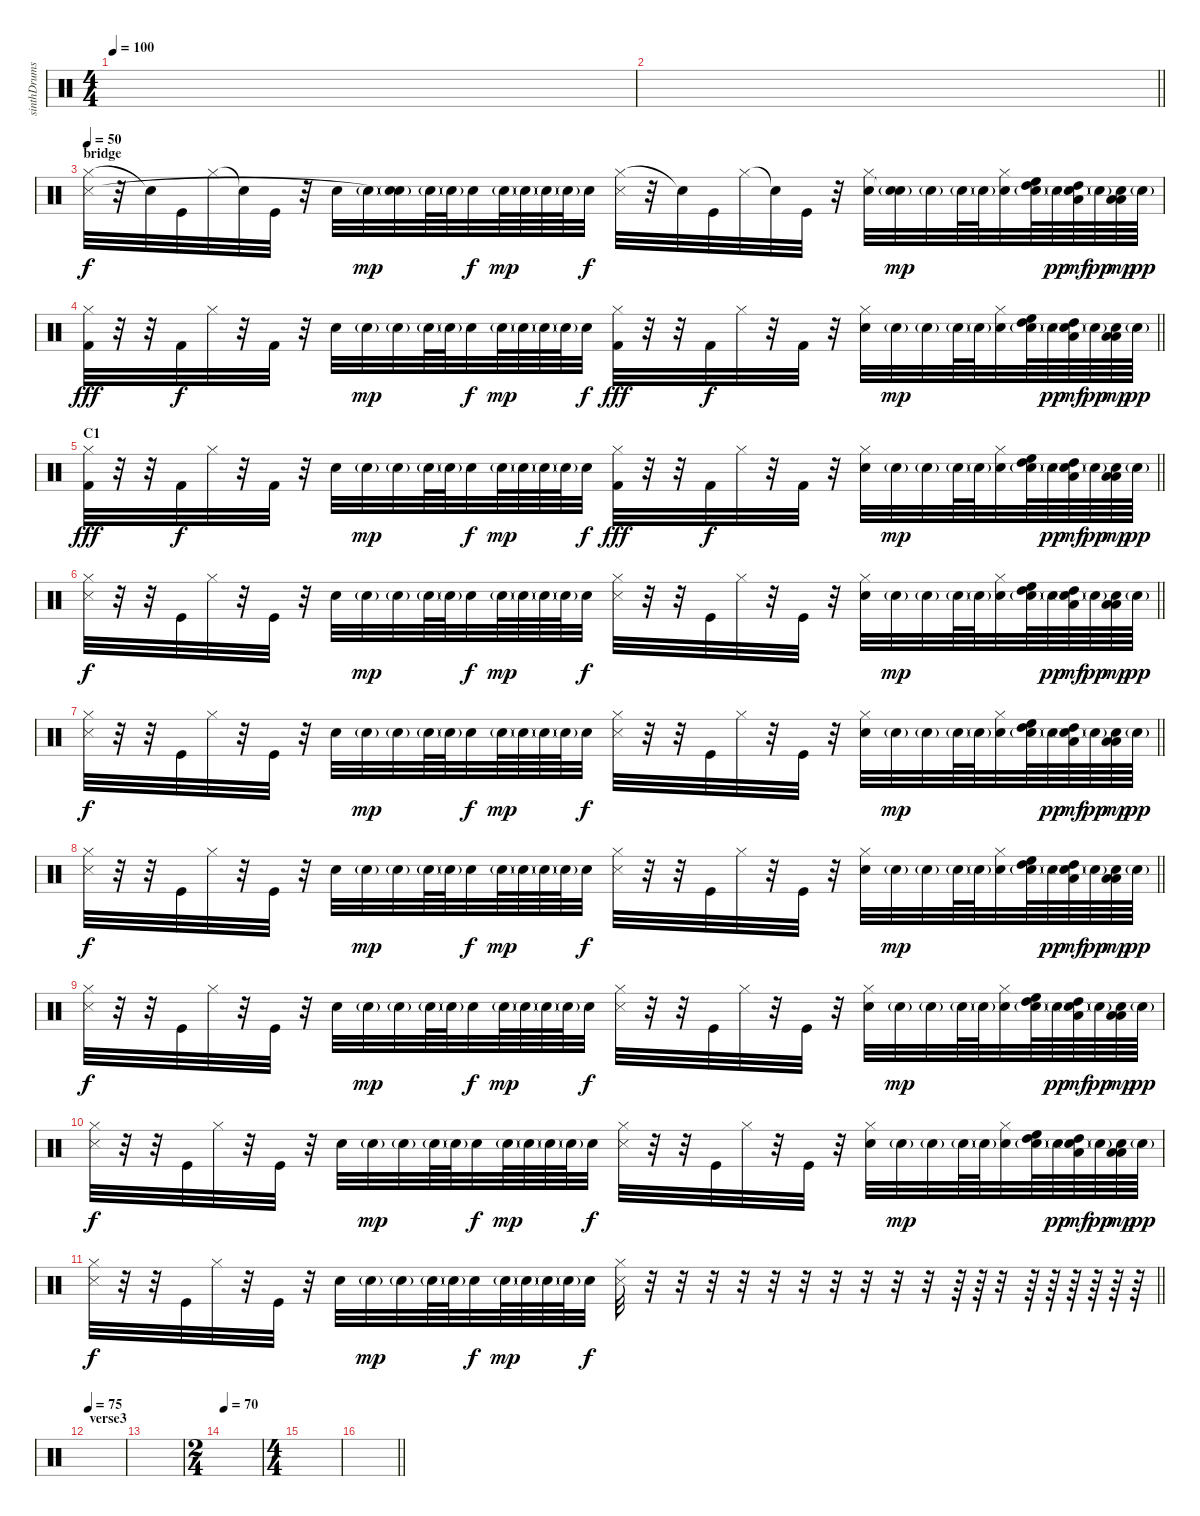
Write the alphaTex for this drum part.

\track ("sinthDrums" "sinthDrums") {instrument percussion}
\staff {score}
\articulation defaults
\ts (4 4)
\tempo 100
\clef neutral
\ks c
|
\barLineRight lightlight
|
\section ("" "bridge")
\tempo 50
("Hi-Hat (closed)" "Snare (side stick) 3").32 r.32 "Snare (hit)"{t}.32 "Kick (hit)".32 "Hi-Hat (closed)".32 "Snare (hit)"{t}.32 "Kick (hit)".32 r.32 "Snare (hit) 2".32 "Snare (hit) 2"{g}.32{dy mp} ("Snare (hit) 2"{g} "Snare (hit)"{t}).32 "Snare (hit) 2"{g}.64 "Snare (hit) 2"{g}.64 "Snare (hit) 2".32{dy f} "Snare (hit) 2"{g}.64{dy mp} "Snare (hit) 2"{g}.64 "Snare (hit) 2"{g}.64 "Snare (hit) 2"{g}.64 "Snare (hit) 2".32{dy f} ("Hi-Hat (closed)" "Snare (side stick) 3").32 r.32 "Snare (hit)"{t}.32 "Kick (hit)".32 "Hi-Hat (closed)".32 "Snare (hit)"{t}.32 "Kick (hit)".32 r.32 ("Hi-Hat (closed)" "Snare (hit) 2").32 ("Snare (hit) 2"{g} "Snare (hit)"{t}).32{dy mp} "Snare (hit) 2"{g}.32 "Snare (hit) 2"{g}.64 "Snare (hit) 2"{g}.64 ("Hi-Hat (closed)" "Snare (hit) 2").32 ("Snare (hit) 2"{g} "High Tom (hit)" "High Floor Tom (hit)").64 "Snare (hit) 2"{g}.64{dy pp} ("Snare (hit) 2"{g} "Low Tom (hit)" "High Tom (hit)").64{dy mf} "Snare (hit) 2"{g}.64{dy pp} ("Snare (hit) 2" "Low Floor Tom (hit)" "Low Tom (hit)").64{dy mp} "Snare (hit) 2"{g}.64{dy pp} |
\barLineRight lightlight
("Hi-Hat (closed)" "Kick (hit) 2").32{dy fff} r.32 r.32 "Kick (hit) 2".32{dy f} "Hi-Hat (closed)".32 r.32 "Kick (hit) 2".32 r.32 "Electric Snare (hit)".32 "Electric Snare (hit)"{g}.32{dy mp} "Electric Snare (hit)"{g}.32 "Electric Snare (hit)"{g}.64 "Electric Snare (hit)"{g}.64 "Electric Snare (hit)".32{dy f} "Electric Snare (hit)"{g}.64{dy mp} "Electric Snare (hit)"{g}.64 "Electric Snare (hit)"{g}.64 "Electric Snare (hit)"{g}.64 "Electric Snare (hit)".32{dy f} ("Hi-Hat (closed)" "Kick (hit) 2").32{dy fff} r.32 r.32 "Kick (hit) 2".32{dy f} "Hi-Hat (closed)".32 r.32 "Kick (hit) 2".32 r.32 ("Hi-Hat (closed)" "Electric Snare (hit)").32 "Electric Snare (hit)"{g}.32{dy mp} "Electric Snare (hit)"{g}.32 "Electric Snare (hit)"{g}.64 "Electric Snare (hit)"{g}.64 ("Hi-Hat (closed)" "Electric Snare (hit)").32 ("Electric Snare (hit)"{g} "High Tom (hit)" "High Floor Tom (hit)").64 "Electric Snare (hit)"{g}.64{dy pp} ("Electric Snare (hit)"{g} "Low Tom (hit)" "High Tom (hit)").64{dy mf} "Electric Snare (hit)"{g}.64{dy pp} ("Electric Snare (hit)" "Low Floor Tom (hit)" "Low Tom (hit)").64{dy mp} "Electric Snare (hit)"{g}.64{dy pp} |
\section ("" "C1")
\barLineRight lightlight
("Hi-Hat (closed)" "Kick (hit) 2").32{dy fff} r.32 r.32 "Kick (hit) 2".32{dy f} "Hi-Hat (closed)".32 r.32 "Kick (hit) 2".32 r.32 "Electric Snare (hit)".32 "Electric Snare (hit)"{g}.32{dy mp} "Electric Snare (hit)"{g}.32 "Electric Snare (hit)"{g}.64 "Electric Snare (hit)"{g}.64 "Electric Snare (hit)".32{dy f} "Electric Snare (hit)"{g}.64{dy mp} "Electric Snare (hit)"{g}.64 "Electric Snare (hit)"{g}.64 "Electric Snare (hit)"{g}.64 "Electric Snare (hit)".32{dy f} ("Hi-Hat (closed)" "Kick (hit) 2").32{dy fff} r.32 r.32 "Kick (hit) 2".32{dy f} "Hi-Hat (closed)".32 r.32 "Kick (hit) 2".32 r.32 ("Hi-Hat (closed)" "Electric Snare (hit)").32 "Electric Snare (hit)"{g}.32{dy mp} "Electric Snare (hit)"{g}.32 "Electric Snare (hit)"{g}.64 "Electric Snare (hit)"{g}.64 ("Hi-Hat (closed)" "Electric Snare (hit)").32 ("Electric Snare (hit)"{g} "High Tom (hit)" "High Floor Tom (hit)").64 "Electric Snare (hit)"{g}.64{dy pp} ("Electric Snare (hit)"{g} "Low Tom (hit)" "High Tom (hit)").64{dy mf} "Electric Snare (hit)"{g}.64{dy pp} ("Electric Snare (hit)" "Low Floor Tom (hit)" "Low Tom (hit)").64{dy mp} "Electric Snare (hit)"{g}.64{dy pp} |
\barLineRight lightlight
("Hi-Hat (closed)" "Snare (side stick) 3").32{dy f} r.32 r.32 "Kick (hit)".32 "Hi-Hat (closed)".32 r.32 "Kick (hit)".32 r.32 "Snare (hit) 2".32 "Snare (hit) 2"{g}.32{dy mp} "Snare (hit) 2"{g}.32 "Snare (hit) 2"{g}.64 "Snare (hit) 2"{g}.64 "Snare (hit) 2".32{dy f} "Snare (hit) 2"{g}.64{dy mp} "Snare (hit) 2"{g}.64 "Snare (hit) 2"{g}.64 "Snare (hit) 2"{g}.64 "Snare (hit) 2".32{dy f} ("Hi-Hat (closed)" "Snare (side stick) 3").32 r.32 r.32 "Kick (hit)".32 "Hi-Hat (closed)".32 r.32 "Kick (hit)".32 r.32 ("Hi-Hat (closed)" "Snare (hit) 2").32 "Snare (hit) 2"{g}.32{dy mp} "Snare (hit) 2"{g}.32 "Snare (hit) 2"{g}.64 "Snare (hit) 2"{g}.64 ("Hi-Hat (closed)" "Snare (hit) 2").32 ("Snare (hit) 2"{g} "High Tom (hit)" "High Floor Tom (hit)").64 "Snare (hit) 2"{g}.64{dy pp} ("Snare (hit) 2"{g} "Low Tom (hit)" "High Tom (hit)").64{dy mf} "Snare (hit) 2"{g}.64{dy pp} ("Snare (hit) 2" "Low Floor Tom (hit)" "Low Tom (hit)").64{dy mp} "Snare (hit) 2"{g}.64{dy pp} |
\barLineRight lightlight
("Hi-Hat (closed)" "Snare (side stick) 3").32{dy f} r.32 r.32 "Kick (hit)".32 "Hi-Hat (closed)".32 r.32 "Kick (hit)".32 r.32 "Snare (hit) 2".32 "Snare (hit) 2"{g}.32{dy mp} "Snare (hit) 2"{g}.32 "Snare (hit) 2"{g}.64 "Snare (hit) 2"{g}.64 "Snare (hit) 2".32{dy f} "Snare (hit) 2"{g}.64{dy mp} "Snare (hit) 2"{g}.64 "Snare (hit) 2"{g}.64 "Snare (hit) 2"{g}.64 "Snare (hit) 2".32{dy f} ("Hi-Hat (closed)" "Snare (side stick) 3").32 r.32 r.32 "Kick (hit)".32 "Hi-Hat (closed)".32 r.32 "Kick (hit)".32 r.32 ("Hi-Hat (closed)" "Snare (hit) 2").32 "Snare (hit) 2"{g}.32{dy mp} "Snare (hit) 2"{g}.32 "Snare (hit) 2"{g}.64 "Snare (hit) 2"{g}.64 ("Hi-Hat (closed)" "Snare (hit) 2").32 ("Snare (hit) 2"{g} "High Tom (hit)" "High Floor Tom (hit)").64 "Snare (hit) 2"{g}.64{dy pp} ("Snare (hit) 2"{g} "Low Tom (hit)" "High Tom (hit)").64{dy mf} "Snare (hit) 2"{g}.64{dy pp} ("Snare (hit) 2" "Low Floor Tom (hit)" "Low Tom (hit)").64{dy mp} "Snare (hit) 2"{g}.64{dy pp} |
\barLineRight lightlight
("Hi-Hat (closed)" "Snare (side stick) 3").32{dy f} r.32 r.32 "Kick (hit)".32 "Hi-Hat (closed)".32 r.32 "Kick (hit)".32 r.32 "Snare (hit) 2".32 "Snare (hit) 2"{g}.32{dy mp} "Snare (hit) 2"{g}.32 "Snare (hit) 2"{g}.64 "Snare (hit) 2"{g}.64 "Snare (hit) 2".32{dy f} "Snare (hit) 2"{g}.64{dy mp} "Snare (hit) 2"{g}.64 "Snare (hit) 2"{g}.64 "Snare (hit) 2"{g}.64 "Snare (hit) 2".32{dy f} ("Hi-Hat (closed)" "Snare (side stick) 3").32 r.32 r.32 "Kick (hit)".32 "Hi-Hat (closed)".32 r.32 "Kick (hit)".32 r.32 ("Hi-Hat (closed)" "Snare (hit) 2").32 "Snare (hit) 2"{g}.32{dy mp} "Snare (hit) 2"{g}.32 "Snare (hit) 2"{g}.64 "Snare (hit) 2"{g}.64 ("Hi-Hat (closed)" "Snare (hit) 2").32 ("Snare (hit) 2"{g} "High Tom (hit)" "High Floor Tom (hit)").64 "Snare (hit) 2"{g}.64{dy pp} ("Snare (hit) 2"{g} "Low Tom (hit)" "High Tom (hit)").64{dy mf} "Snare (hit) 2"{g}.64{dy pp} ("Snare (hit) 2" "Low Floor Tom (hit)" "Low Tom (hit)").64{dy mp} "Snare (hit) 2"{g}.64{dy pp} |
("Hi-Hat (closed)" "Snare (side stick) 3").32{dy f} r.32 r.32 "Kick (hit)".32 "Hi-Hat (closed)".32 r.32 "Kick (hit)".32 r.32 "Snare (hit) 2".32 "Snare (hit) 2"{g}.32{dy mp} "Snare (hit) 2"{g}.32 "Snare (hit) 2"{g}.64 "Snare (hit) 2"{g}.64 "Snare (hit) 2".32{dy f} "Snare (hit) 2"{g}.64{dy mp} "Snare (hit) 2"{g}.64 "Snare (hit) 2"{g}.64 "Snare (hit) 2"{g}.64 "Snare (hit) 2".32{dy f} ("Hi-Hat (closed)" "Snare (side stick) 3").32 r.32 r.32 "Kick (hit)".32 "Hi-Hat (closed)".32 r.32 "Kick (hit)".32 r.32 ("Hi-Hat (closed)" "Snare (hit) 2").32 "Snare (hit) 2"{g}.32{dy mp} "Snare (hit) 2"{g}.32 "Snare (hit) 2"{g}.64 "Snare (hit) 2"{g}.64 ("Hi-Hat (closed)" "Snare (hit) 2").32 ("Snare (hit) 2"{g} "High Tom (hit)" "High Floor Tom (hit)").64 "Snare (hit) 2"{g}.64{dy pp} ("Snare (hit) 2"{g} "Low Tom (hit)" "High Tom (hit)").64{dy mf} "Snare (hit) 2"{g}.64{dy pp} ("Snare (hit) 2" "Low Floor Tom (hit)" "Low Tom (hit)").64{dy mp} "Snare (hit) 2"{g}.64{dy pp} |
("Hi-Hat (closed)" "Snare (side stick) 3").32{dy f} r.32 r.32 "Kick (hit)".32 "Hi-Hat (closed)".32 r.32 "Kick (hit)".32 r.32 "Snare (hit) 2".32 "Snare (hit) 2"{g}.32{dy mp} "Snare (hit) 2"{g}.32 "Snare (hit) 2"{g}.64 "Snare (hit) 2"{g}.64 "Snare (hit) 2".32{dy f} "Snare (hit) 2"{g}.64{dy mp} "Snare (hit) 2"{g}.64 "Snare (hit) 2"{g}.64 "Snare (hit) 2"{g}.64 "Snare (hit) 2".32{dy f} ("Hi-Hat (closed)" "Snare (side stick) 3").32 r.32 r.32 "Kick (hit)".32 "Hi-Hat (closed)".32 r.32 "Kick (hit)".32 r.32 ("Hi-Hat (closed)" "Snare (hit) 2").32 "Snare (hit) 2"{g}.32{dy mp} "Snare (hit) 2"{g}.32 "Snare (hit) 2"{g}.64 "Snare (hit) 2"{g}.64 ("Hi-Hat (closed)" "Snare (hit) 2").32 ("Snare (hit) 2"{g} "High Tom (hit)" "High Floor Tom (hit)").64 "Snare (hit) 2"{g}.64{dy pp} ("Snare (hit) 2"{g} "Low Tom (hit)" "High Tom (hit)").64{dy mf} "Snare (hit) 2"{g}.64{dy pp} ("Snare (hit) 2" "Low Floor Tom (hit)" "Low Tom (hit)").64{dy mp} "Snare (hit) 2"{g}.64{dy pp} |
\barLineRight lightlight
("Hi-Hat (closed)" "Snare (side stick) 3").32{dy f} r.32 r.32 "Kick (hit)".32 "Hi-Hat (closed)".32 r.32 "Kick (hit)".32 r.32 "Snare (hit) 2".32 "Snare (hit) 2"{g}.32{dy mp} "Snare (hit) 2"{g}.32 "Snare (hit) 2"{g}.64 "Snare (hit) 2"{g}.64 "Snare (hit) 2".32{dy f} "Snare (hit) 2"{g}.64{dy mp} "Snare (hit) 2"{g}.64 "Snare (hit) 2"{g}.64 "Snare (hit) 2"{g}.64 "Snare (hit) 2".32{dy f} ("Hi-Hat (closed)" "Snare (side stick) 3").32 r.32 r.32 r.32 r.32 r.32 r.32 r.32 r.32 r.32 r.32 r.64 r.64 r.32 r.64 r.64 r.64 r.64 r.64 r.64 |
\section ("" "verse3")
\tempo 75
|
|
\ts (2 4)
\tempo 70
|
\ts (4 4)
|
\barLineRight lightlight
